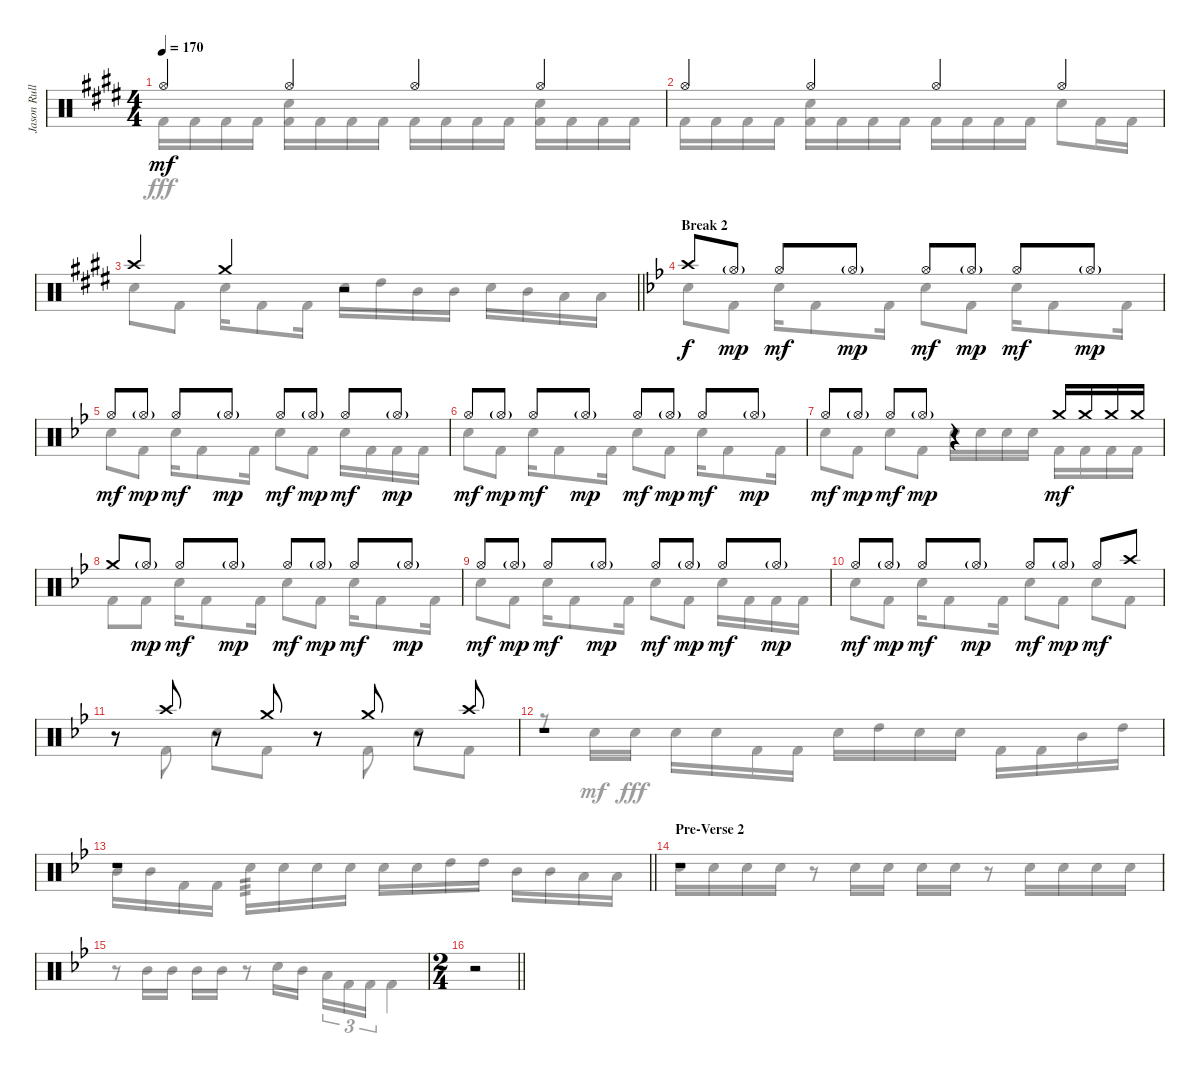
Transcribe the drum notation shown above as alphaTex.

\track ("Jason Rullo Drums" "Jason Rull") {instrument percussion}
\staff {score}
\articulation defaults
\voice
\ts (4 4)
\tempo 170
\clef neutral
\ks c#minor "Hi-Hat (open)".4{dy mf} "Hi-Hat (open)".4 "Hi-Hat (open)".4 "Hi-Hat (open)".4
|
"Hi-Hat (open)".4 "Hi-Hat (open)".4 "Hi-Hat (open)".4 "Hi-Hat (open)".4 |
\barLineRight lightlight "Crash high (hit)".4 "Crash medium (hit)".4
r.2 |
\section ("" "Break 2")
\ks gminor "Crash high (hit)".8{dy f} "Hi-Hat (open)"{g}.8{dy mp} "Hi-Hat (open)".8{dy mf} "Hi-Hat (open)"{g}.8{dy mp} "Hi-Hat (open)".8{dy mf} "Hi-Hat (open)"{g}.8{dy mp} "Hi-Hat (open)".8{dy mf} "Hi-Hat (open)"{g}.8{dy mp}
|
"Hi-Hat (open)".8{dy mf} "Hi-Hat (open)"{g}.8{dy mp} "Hi-Hat (open)".8{dy mf} "Hi-Hat (open)"{g}.8{dy mp} "Hi-Hat (open)".8{dy mf} "Hi-Hat (open)"{g}.8{dy mp} "Hi-Hat (open)".8{dy mf} "Hi-Hat (open)"{g}.8{dy mp} |
"Hi-Hat (open)".8{dy mf} "Hi-Hat (open)"{g}.8{dy mp} "Hi-Hat (open)".8{dy mf} "Hi-Hat (open)"{g}.8{dy mp} "Hi-Hat (open)".8{dy mf} "Hi-Hat (open)"{g}.8{dy mp} "Hi-Hat (open)".8{dy mf} "Hi-Hat (open)"{g}.8{dy mp} |
"Hi-Hat (open)".8{dy mf} "Hi-Hat (open)"{g}.8{dy mp} "Hi-Hat (open)".8{dy mf} "Hi-Hat (open)"{g}.8{dy mp} r.4 "Crash medium (hit)".16{dy mf} "Crash medium (hit)".16 "Crash medium (hit)".16 "Crash medium (hit)".16 |
"Crash medium (hit)".8 "Hi-Hat (open)"{g}.8{dy mp} "Hi-Hat (open)".8{dy mf} "Hi-Hat (open)"{g}.8{dy mp} "Hi-Hat (open)".8{dy mf} "Hi-Hat (open)"{g}.8{dy mp} "Hi-Hat (open)".8{dy mf} "Hi-Hat (open)"{g}.8{dy mp} |
"Hi-Hat (open)".8{dy mf} "Hi-Hat (open)"{g}.8{dy mp} "Hi-Hat (open)".8{dy mf} "Hi-Hat (open)"{g}.8{dy mp} "Hi-Hat (open)".8{dy mf} "Hi-Hat (open)"{g}.8{dy mp} "Hi-Hat (open)".8{dy mf} "Hi-Hat (open)"{g}.8{dy mp} |
"Hi-Hat (open)".8{dy mf} "Hi-Hat (open)"{g}.8{dy mp} "Hi-Hat (open)".8{dy mf} "Hi-Hat (open)"{g}.8{dy mp} "Hi-Hat (open)".8{dy mf} "Hi-Hat (open)"{g}.8{dy mp} "Hi-Hat (open)".8{dy mf} "Crash high (hit)".8 |
r.8 "Crash high (hit)".8 r.8 "Crash medium (hit)".8 r.8 "Crash medium (hit)".8 r.8 "Crash high (hit)".8 |
r.1 |
\barLineRight lightlight
r.1 |
\section ("" "Pre-Verse 2")
r.1 |
|
\ts (2 4)
\barLineRight lightlight
r.2
\voice
\clef neutral
\ottava regular
\simile none
\ks c#minor "Kick (hit) 2".16{dy fff} "Kick (hit) 2".16 "Kick (hit) 2".16 "Kick (hit) 2".16
("Electric Snare (hit)" "Kick (hit) 2").16 "Kick (hit) 2".16 "Kick (hit) 2".16 "Kick (hit) 2".16 "Kick (hit) 2".16 "Kick (hit) 2".16 "Kick (hit) 2".16 "Kick (hit) 2".16 ("Electric Snare (hit)" "Kick (hit) 2").16 "Kick (hit) 2".16 "Kick (hit) 2".16 "Kick (hit) 2".16 |
"Kick (hit) 2".16 "Kick (hit) 2".16 "Kick (hit) 2".16 "Kick (hit) 2".16 ("Electric Snare (hit)" "Kick (hit) 2").16 "Kick (hit) 2".16 "Kick (hit) 2".16 "Kick (hit) 2".16 "Kick (hit) 2".16 "Kick (hit) 2".16 "Kick (hit) 2".16 "Kick (hit) 2".16 "Electric Snare (hit)".8 "Kick (hit) 2".16 "Kick (hit) 2".16 |
\barLineRight lightlight "Electric Snare (hit)".8 "Kick (hit) 2".8 "Electric Snare (hit)".16 "Kick (hit) 2".8 "Kick (hit) 2".16 "Electric Snare (hit)".16 "High Tom (hit)".16 "Mid Tom (hit)".16 "Mid Tom (hit)".16 "Electric Snare (hit)".16 "Mid Tom (hit)".16 "Low Tom (hit)".16 "Low Tom (hit)".16
|
\ks gminor "Electric Snare (hit)".8 "Kick (hit) 2".8 "Electric Snare (hit)".16 "Kick (hit) 2".8 "Kick (hit) 2".16 "Electric Snare (hit)".8 "Kick (hit) 2".8 "Electric Snare (hit)".16 "Kick (hit) 2".8 "Kick (hit) 2".16
|
"Electric Snare (hit)".8 "Kick (hit) 2".8 "Electric Snare (hit)".16 "Kick (hit) 2".8 "Kick (hit) 2".16 "Electric Snare (hit)".8 "Kick (hit) 2".8 "Electric Snare (hit)".16 "Kick (hit) 2".16 "Kick (hit) 2".16 "Kick (hit) 2".16 |
"Electric Snare (hit)".8 "Kick (hit) 2".8 "Electric Snare (hit)".16 "Kick (hit) 2".8 "Kick (hit) 2".16 "Electric Snare (hit)".8 "Kick (hit) 2".8 "Electric Snare (hit)".16 "Kick (hit) 2".8 "Kick (hit) 2".16 |
"Electric Snare (hit)".8 "Kick (hit) 2".8 "Electric Snare (hit)".8 "Kick (hit) 2".8 "Electric Snare (hit)".16 "Electric Snare (hit)".16 "Electric Snare (hit)".16 "Electric Snare (hit)".16 "Kick (hit) 2".16 "Kick (hit) 2".16 "Kick (hit) 2".16 "Kick (hit) 2".16 |
"Kick (hit) 2".8 "Kick (hit) 2".8 "Electric Snare (hit)".16 "Kick (hit) 2".8 "Kick (hit) 2".16 "Electric Snare (hit)".8 "Kick (hit) 2".8 "Electric Snare (hit)".16 "Kick (hit) 2".8 "Kick (hit) 2".16 |
"Electric Snare (hit)".8 "Kick (hit) 2".8 "Electric Snare (hit)".16 "Kick (hit) 2".8 "Kick (hit) 2".16 "Electric Snare (hit)".8 "Kick (hit) 2".8 "Electric Snare (hit)".16 "Kick (hit) 2".16 "Kick (hit) 2".16 "Kick (hit) 2".16 |
"Electric Snare (hit)".8 "Kick (hit) 2".8 "Electric Snare (hit)".16 "Kick (hit) 2".8 "Kick (hit) 2".16 "Electric Snare (hit)".8 "Kick (hit) 2".8 "Electric Snare (hit)".8 "Kick (hit) 2".8 |
r.8 "Kick (hit) 2".8 "Electric Snare (hit)".8 "Kick (hit) 2".8 r.8 "Kick (hit) 2".8 "Electric Snare (hit)".8 "Kick (hit) 2".8 |
r.8 "Electric Snare (hit)".16{dy mf} "Electric Snare (hit)".16{dy fff} "Electric Snare (hit)".16 "Electric Snare (hit)".16 "Kick (hit) 2".16 "Kick (hit) 2".16 "Electric Snare (hit)".16 "High Tom (hit)".16 "Electric Snare (hit)".16 "Electric Snare (hit)".16 "Kick (hit) 2".16 "Kick (hit) 2".16 "Mid Tom (hit)".16 "High Tom (hit)".16 |
\barLineRight lightlight "Mid Tom (hit)".16 "Mid Tom (hit)".16 "Kick (hit) 2".16 "Kick (hit) 2".16 "Electric Snare (hit)".16{tp 3} "Electric Snare (hit)".16 "Electric Snare (hit)".16 "Electric Snare (hit)".16 "Electric Snare (hit)".16 "Electric Snare (hit)".16 "High Tom (hit)".16 "High Tom (hit)".16 "Mid Tom (hit)".16 "Mid Tom (hit)".16 "Low Tom (hit)".16 "Low Tom (hit)".16
|
"Electric Snare (hit)".16 "Electric Snare (hit)".16 "Electric Snare (hit)".16 "Electric Snare (hit)".16 r.8 "Electric Snare (hit)".16 "Electric Snare (hit)".16 "Electric Snare (hit)".16 "Electric Snare (hit)".16 r.8 "Electric Snare (hit)".16 "Electric Snare (hit)".16 "Electric Snare (hit)".16 "Electric Snare (hit)".16 |
r.8 "Mid Tom (hit)".16 "Mid Tom (hit)".16 "Mid Tom (hit)".16 "Mid Tom (hit)".16 r.8 "Electric Snare (hit)".16 "Mid Tom (hit)".16{beam splitsecondary} "Low Tom (hit)".16{tu (3 2)} "Kick (hit) 2".16{tu (3 2)} "Kick (hit) 2".16{tu (3 2)} "Kick (hit) 2".4 |
\barLineRight lightlight
r.2
